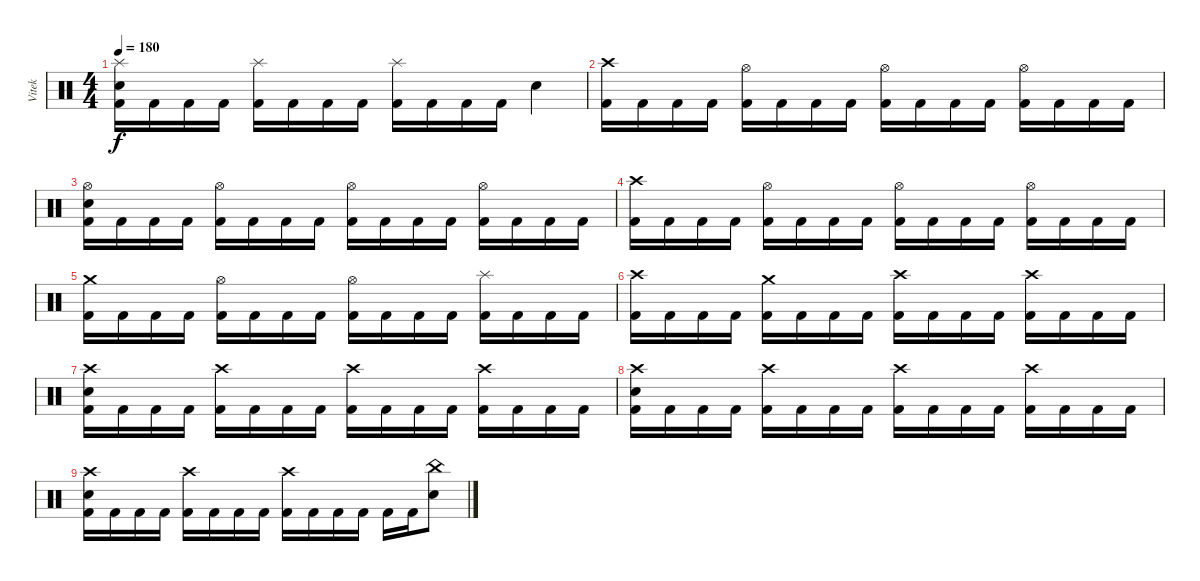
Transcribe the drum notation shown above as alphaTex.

\track ("Vitek" "Vitek") {instrument percussion}
\staff {score}
\articulation defaults
\ts (4 4)
\tempo 180
\clef neutral
\ks c
("Splash (hit)" "Electric Snare (hit)" "Kick (hit) 2").16{dy f} "Kick (hit) 2".16 "Kick (hit) 2".16 "Kick (hit) 2".16 ("Splash (hit)" "Kick (hit) 2").16 "Kick (hit) 2".16 "Kick (hit) 2".16 "Kick (hit) 2".16 ("Splash (hit)" "Kick (hit) 2").16 "Kick (hit) 2".16 "Kick (hit) 2".16 "Kick (hit) 2".16 "Electric Snare (hit)".4 |
("Crash high (hit)" "Kick (hit) 2").16 "Kick (hit) 2".16 "Kick (hit) 2".16 "Kick (hit) 2".16 ("Hi-Hat (open)" "Kick (hit) 2").16 "Kick (hit) 2".16 "Kick (hit) 2".16 "Kick (hit) 2".16 ("Hi-Hat (open)" "Kick (hit) 2").16 "Kick (hit) 2".16 "Kick (hit) 2".16 "Kick (hit) 2".16 ("Hi-Hat (open)" "Kick (hit) 2").16 "Kick (hit) 2".16 "Kick (hit) 2".16 "Kick (hit) 2".16 |
("Hi-Hat (open)" "Electric Snare (hit)" "Kick (hit) 2").16 "Kick (hit) 2".16 "Kick (hit) 2".16 "Kick (hit) 2".16 ("Hi-Hat (open)" "Kick (hit) 2").16 "Kick (hit) 2".16 "Kick (hit) 2".16 "Kick (hit) 2".16 ("Hi-Hat (open)" "Kick (hit) 2").16 "Kick (hit) 2".16 "Kick (hit) 2".16 "Kick (hit) 2".16 ("Hi-Hat (open)" "Kick (hit) 2").16 "Kick (hit) 2".16 "Kick (hit) 2".16 "Kick (hit) 2".16 |
("Crash high (hit)" "Kick (hit) 2").16 "Kick (hit) 2".16 "Kick (hit) 2".16 "Kick (hit) 2".16 ("Hi-Hat (open)" "Kick (hit) 2").16 "Kick (hit) 2".16 "Kick (hit) 2".16 "Kick (hit) 2".16 ("Hi-Hat (open)" "Kick (hit) 2").16 "Kick (hit) 2".16 "Kick (hit) 2".16 "Kick (hit) 2".16 ("Hi-Hat (open)" "Kick (hit) 2").16 "Kick (hit) 2".16 "Kick (hit) 2".16 "Kick (hit) 2".16 |
("Crash medium (hit)" "Kick (hit) 2").16 "Kick (hit) 2".16 "Kick (hit) 2".16 "Kick (hit) 2".16 ("Hi-Hat (open)" "Kick (hit) 2").16 "Kick (hit) 2".16 "Kick (hit) 2".16 "Kick (hit) 2".16 ("Hi-Hat (open)" "Kick (hit) 2").16 "Kick (hit) 2".16 "Kick (hit) 2".16 "Kick (hit) 2".16 ("Splash (hit)" "Kick (hit) 2").16 "Kick (hit) 2".16 "Kick (hit) 2".16 "Kick (hit) 2".16 |
("Crash high (hit)" "Kick (hit) 2").16 "Kick (hit) 2".16 "Kick (hit) 2".16 "Kick (hit) 2".16 ("Crash medium (hit)" "Kick (hit) 2").16 "Kick (hit) 2".16 "Kick (hit) 2".16 "Kick (hit) 2".16 ("Crash high (hit)" "Kick (hit) 2").16 "Kick (hit) 2".16 "Kick (hit) 2".16 "Kick (hit) 2".16 ("Crash high (hit)" "Kick (hit) 2").16 "Kick (hit) 2".16 "Kick (hit) 2".16 "Kick (hit) 2".16 |
("Crash high (hit)" "Electric Snare (hit)" "Kick (hit) 2").16 "Kick (hit) 2".16 "Kick (hit) 2".16 "Kick (hit) 2".16 ("Crash high (hit)" "Kick (hit) 2").16 "Kick (hit) 2".16 "Kick (hit) 2".16 "Kick (hit) 2".16 ("Crash high (hit)" "Kick (hit) 2").16 "Kick (hit) 2".16 "Kick (hit) 2".16 "Kick (hit) 2".16 ("Crash high (hit)" "Kick (hit) 2").16 "Kick (hit) 2".16 "Kick (hit) 2".16 "Kick (hit) 2".16 |
("Crash high (hit)" "Electric Snare (hit)" "Kick (hit) 2").16 "Kick (hit) 2".16 "Kick (hit) 2".16 "Kick (hit) 2".16 ("Crash high (hit)" "Kick (hit) 2").16 "Kick (hit) 2".16 "Kick (hit) 2".16 "Kick (hit) 2".16 ("Crash high (hit)" "Kick (hit) 2").16 "Kick (hit) 2".16 "Kick (hit) 2".16 "Kick (hit) 2".16 ("Crash high (hit)" "Kick (hit) 2").16 "Kick (hit) 2".16 "Kick (hit) 2".16 "Kick (hit) 2".16 |
("Crash high (hit)" "Electric Snare (hit)" "Kick (hit) 2").16 "Kick (hit) 2".16 "Kick (hit) 2".16 "Kick (hit) 2".16 ("Crash high (hit)" "Kick (hit) 2").16 "Kick (hit) 2".16 "Kick (hit) 2".16 "Kick (hit) 2".16 ("Crash high (hit)" "Kick (hit) 2").16 "Kick (hit) 2".16 "Kick (hit) 2".16 "Kick (hit) 2".16 "Kick (hit) 2".16 "Kick (hit) 2".16 ("China (hit)" "Electric Snare (hit)").8
